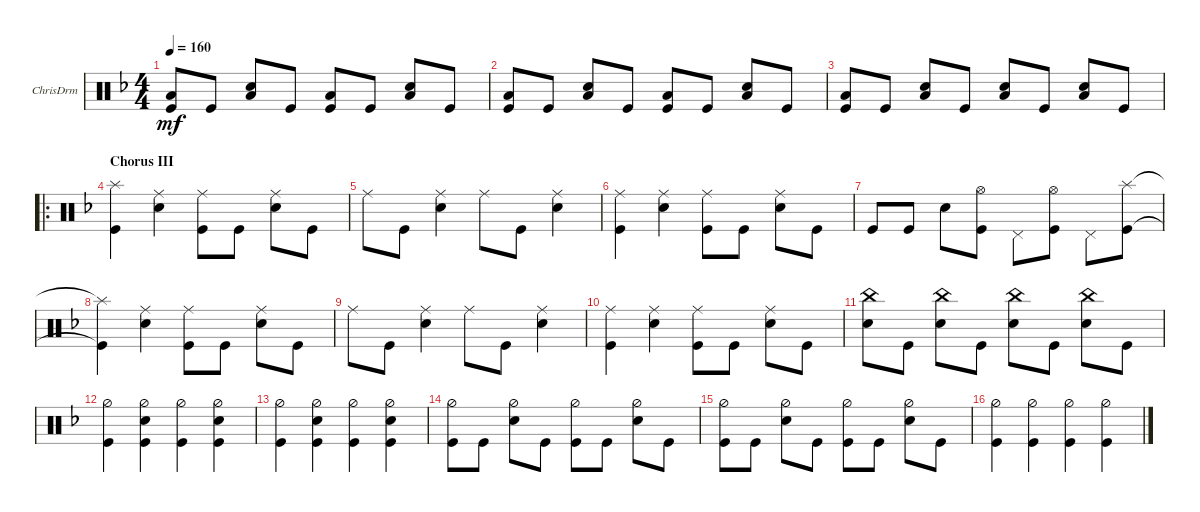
\defaultSystemsLayout 4
\bracketExtendMode groupsimilarinstruments
\firstSystemTrackNameOrientation horizontal
\otherSystemsTrackNameOrientation horizontal
\track ("Drumkit" "ChrisDrm") {instrument percussion}
\staff {score}
\articulation defaults
\ts (4 4)
\tempo 160
\clef neutral
\ks dminor
("Kick (hit)" "Low Tom (hit)").8{dy mf} "Kick (hit)".8 ("Snare (hit) 2" "Low Tom (hit)").8 "Kick (hit)".8 ("Kick (hit)" "Low Tom (hit)").8 "Kick (hit)".8 ("Snare (hit) 2" "Low Tom (hit)").8 "Kick (hit)".8 |
("Kick (hit)" "Low Tom (hit)").8 "Kick (hit)".8 ("Snare (hit) 2" "Low Tom (hit)").8 "Kick (hit)".8 ("Kick (hit)" "Low Tom (hit)").8 "Kick (hit)".8 ("Snare (hit) 2" "Low Tom (hit)").8 "Kick (hit)".8 |
("Kick (hit)" "Low Tom (hit)").8 "Kick (hit)".8 ("Snare (hit) 2" "Low Tom (hit)").8 "Kick (hit)".8 ("Low Tom (hit)" "Snare (hit) 2").8 "Kick (hit)".8 ("Snare (hit) 2" "Low Tom (hit)").8 "Kick (hit)".8 |
\ro
\section ("" "Chorus III")
("Splash (hit)" "Kick (hit)").4 ("Snare (hit) 2" "Ride (middle)").4 ("Kick (hit)" "Ride (middle)").8 "Kick (hit)".8 ("Snare (hit) 2" "Ride (middle)").8 "Kick (hit)".8 |
"Ride (middle)".8 "Kick (hit)".8 ("Snare (hit) 2" "Ride (middle)").4 "Ride (middle)".8 "Kick (hit)".8 ("Snare (hit) 2" "Ride (middle)").4 |
("Ride (middle)" "Kick (hit)").4 ("Snare (hit) 2" "Ride (middle)").4 ("Ride (middle)" "Kick (hit)").8 "Kick (hit)".8 ("Snare (hit) 2" "Ride (middle)").8 "Kick (hit)".8 |
"Kick (hit)".8 "Kick (hit)".8 "Snare (hit) 2".8 ("Kick (hit)" "Hi-Hat (open)").8 "Pedal Hi-Hat (hit)".8 ("Kick (hit)" "Hi-Hat (open)").8 "Pedal Hi-Hat (hit)".8 ("Kick (hit)" "Splash (hit)").8 |
("Kick (hit)"{t} "Splash (hit)"{t}).4 ("Snare (hit) 2" "Ride (middle)").4 ("Ride (middle)" "Kick (hit)").8 "Kick (hit)".8 ("Snare (hit) 2" "Ride (middle)").8 "Kick (hit)".8 |
"Ride (middle)".8 "Kick (hit)".8 ("Snare (hit) 2" "Ride (middle)").4 "Ride (middle)".8 "Kick (hit)".8 ("Snare (hit) 2" "Ride (middle)").4 |
("Ride (middle)" "Kick (hit)").4 ("Snare (hit) 2" "Ride (middle)").4 ("Ride (middle)" "Kick (hit)").8 "Kick (hit)".8 ("Snare (hit) 2" "Ride (middle)").8 "Kick (hit)".8 |
("Snare (hit) 2" "China (hit)").8 "Kick (hit)".8 ("Snare (hit) 2" "China (hit)").8 "Kick (hit)".8 ("Snare (hit) 2" "China (hit)").8 "Kick (hit)".8 ("Snare (hit) 2" "China (hit)").8 "Kick (hit)".8 |
("Hi-Hat (half)" "Kick (hit)").4 ("Hi-Hat (half)" "Snare (hit) 2" "Kick (hit)").4 ("Hi-Hat (half)" "Kick (hit)").4 ("Hi-Hat (half)" "Snare (hit) 2" "Kick (hit)").4 |
("Hi-Hat (half)" "Kick (hit)").4 ("Hi-Hat (half)" "Kick (hit)" "Snare (hit) 2").4 ("Hi-Hat (half)" "Kick (hit)").4 ("Hi-Hat (half)" "Kick (hit)" "Snare (hit) 2").4 |
("Kick (hit)" "Hi-Hat (half)").8 "Kick (hit)".8 ("Snare (hit) 2" "Hi-Hat (half)").8 "Kick (hit)".8 ("Kick (hit)" "Hi-Hat (half)").8 "Kick (hit)".8 ("Snare (hit) 2" "Hi-Hat (half)").8 "Kick (hit)".8 |
("Kick (hit)" "Hi-Hat (half)").8 "Kick (hit)".8 ("Snare (hit) 2" "Hi-Hat (half)").8 "Kick (hit)".8 ("Kick (hit)" "Hi-Hat (half)").8 "Kick (hit)".8 ("Snare (hit) 2" "Hi-Hat (half)").8 "Kick (hit)".8 |
("Kick (hit)" "Hi-Hat (half)").4 ("Kick (hit)" "Hi-Hat (half)").4 ("Kick (hit)" "Hi-Hat (half)").4 ("Kick (hit)" "Hi-Hat (half)").4
